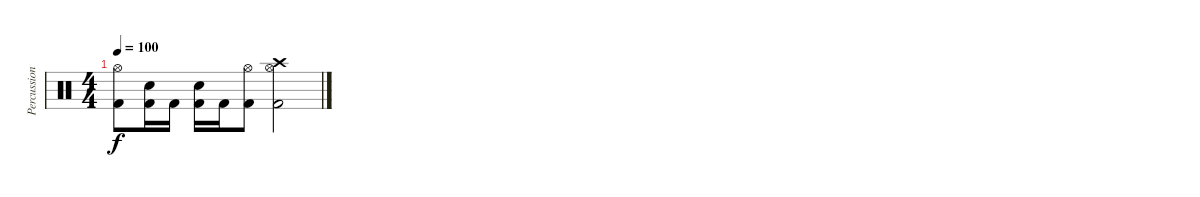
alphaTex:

\track ("Percussion" "Percussion") {instrument percussion}
\staff {score}
\articulation defaults
\ts (4 4)
\tempo 100
\clef neutral
\ks c
("Hi-Hat (open)" "Kick (hit) 2").8{dy f} ("Electric Snare (hit)" "Kick (hit) 2").16 "Kick (hit) 2".16 ("Electric Snare (hit)" "Kick (hit) 2").16 "Kick (hit) 2".16 ("Hi-Hat (open)" "Kick (hit) 2").8 ("Crash high (hit)" "Hi-Hat (open)" "Kick (hit) 2").2
